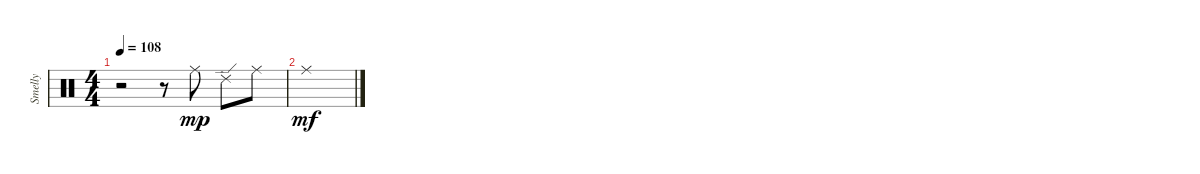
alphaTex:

\track ("Smelly" "Smelly") {instrument percussion}
\staff {score}
\articulation defaults
\ts (4 4)
\tempo 108
\clef neutral
\ks c
r.2{dy f} r.8 "Ride (middle)".8{dy mp} "Ride (edge) 2".8 "Ride (middle)".8 |
"Ride (middle)".1{dy mf}
